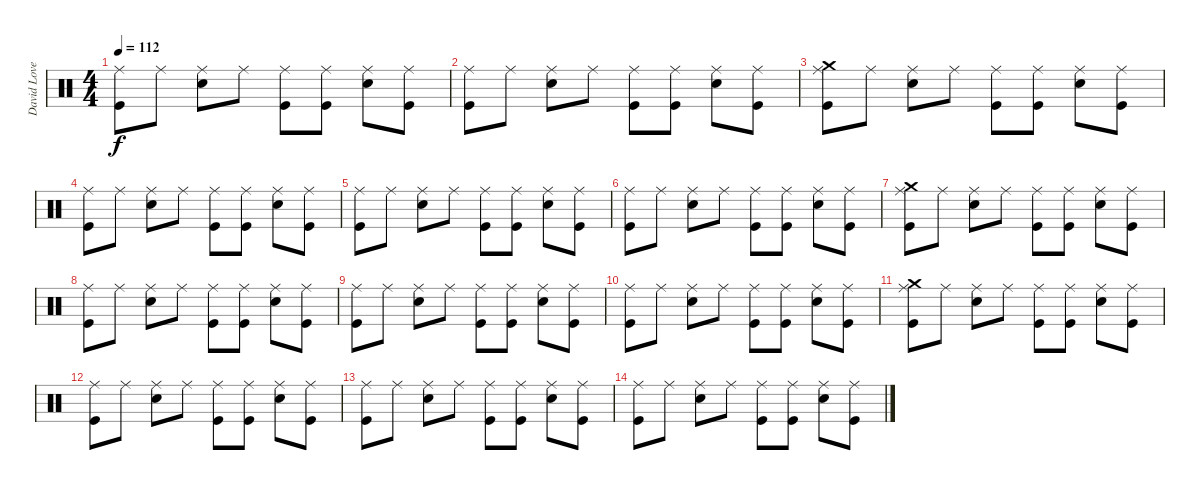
\track ("David Lovering" "David Love") {instrument percussion}
\staff {score}
\articulation defaults
\ts (4 4)
\tempo 112
\clef neutral
\ks c
("Ride (middle)" "Kick (hit)").8{dy f} "Ride (middle)".8 ("Ride (middle)" "Snare (hit) 2").8 "Ride (middle)".8 ("Ride (middle)" "Kick (hit)").8 ("Ride (middle)" "Kick (hit)").8 ("Ride (middle)" "Snare (hit) 2").8 ("Ride (middle)" "Kick (hit)").8 |
("Ride (middle)" "Kick (hit)").8 "Ride (middle)".8 ("Ride (middle)" "Snare (hit) 2").8 "Ride (middle)".8 ("Ride (middle)" "Kick (hit)").8 ("Ride (middle)" "Kick (hit)").8 ("Ride (middle)" "Snare (hit) 2").8 ("Ride (middle)" "Kick (hit)").8 |
("Ride (middle)" "Crash medium (hit)" "Kick (hit)").8 "Ride (middle)".8 ("Ride (middle)" "Snare (hit) 2").8 "Ride (middle)".8 ("Ride (middle)" "Kick (hit)").8 ("Ride (middle)" "Kick (hit)").8 ("Ride (middle)" "Snare (hit) 2").8 ("Ride (middle)" "Kick (hit)").8 |
("Ride (middle)" "Kick (hit)").8 "Ride (middle)".8 ("Ride (middle)" "Snare (hit) 2").8 "Ride (middle)".8 ("Ride (middle)" "Kick (hit)").8 ("Ride (middle)" "Kick (hit)").8 ("Ride (middle)" "Snare (hit) 2").8 ("Ride (middle)" "Kick (hit)").8 |
("Ride (middle)" "Kick (hit)").8 "Ride (middle)".8 ("Ride (middle)" "Snare (hit) 2").8 "Ride (middle)".8 ("Ride (middle)" "Kick (hit)").8 ("Ride (middle)" "Kick (hit)").8 ("Ride (middle)" "Snare (hit) 2").8 ("Ride (middle)" "Kick (hit)").8 |
("Ride (middle)" "Kick (hit)").8 "Ride (middle)".8 ("Ride (middle)" "Snare (hit) 2").8 "Ride (middle)".8 ("Ride (middle)" "Kick (hit)").8 ("Ride (middle)" "Kick (hit)").8 ("Ride (middle)" "Snare (hit) 2").8 ("Ride (middle)" "Kick (hit)").8 |
("Ride (middle)" "Crash medium (hit)" "Kick (hit)").8 "Ride (middle)".8 ("Ride (middle)" "Snare (hit) 2").8 "Ride (middle)".8 ("Ride (middle)" "Kick (hit)").8 ("Ride (middle)" "Kick (hit)").8 ("Ride (middle)" "Snare (hit) 2").8 ("Ride (middle)" "Kick (hit)").8 |
("Ride (middle)" "Kick (hit)").8 "Ride (middle)".8 ("Ride (middle)" "Snare (hit) 2").8 "Ride (middle)".8 ("Ride (middle)" "Kick (hit)").8 ("Ride (middle)" "Kick (hit)").8 ("Ride (middle)" "Snare (hit) 2").8 ("Ride (middle)" "Kick (hit)").8 |
("Ride (middle)" "Kick (hit)").8 "Ride (middle)".8 ("Ride (middle)" "Snare (hit) 2").8 "Ride (middle)".8 ("Ride (middle)" "Kick (hit)").8 ("Ride (middle)" "Kick (hit)").8 ("Ride (middle)" "Snare (hit) 2").8 ("Ride (middle)" "Kick (hit)").8 |
("Ride (middle)" "Kick (hit)").8 "Ride (middle)".8 ("Ride (middle)" "Snare (hit) 2").8 "Ride (middle)".8 ("Ride (middle)" "Kick (hit)").8 ("Ride (middle)" "Kick (hit)").8 ("Ride (middle)" "Snare (hit) 2").8 ("Ride (middle)" "Kick (hit)").8 |
("Ride (middle)" "Crash medium (hit)" "Kick (hit)").8 "Ride (middle)".8 ("Ride (middle)" "Snare (hit) 2").8 "Ride (middle)".8 ("Ride (middle)" "Kick (hit)").8 ("Ride (middle)" "Kick (hit)").8 ("Ride (middle)" "Snare (hit) 2").8 ("Ride (middle)" "Kick (hit)").8 |
("Ride (middle)" "Kick (hit)").8 "Ride (middle)".8 ("Ride (middle)" "Snare (hit) 2").8 "Ride (middle)".8 ("Ride (middle)" "Kick (hit)").8 ("Ride (middle)" "Kick (hit)").8 ("Ride (middle)" "Snare (hit) 2").8 ("Ride (middle)" "Kick (hit)").8 |
("Ride (middle)" "Kick (hit)").8 "Ride (middle)".8 ("Ride (middle)" "Snare (hit) 2").8 "Ride (middle)".8 ("Ride (middle)" "Kick (hit)").8 ("Ride (middle)" "Kick (hit)").8 ("Ride (middle)" "Snare (hit) 2").8 ("Ride (middle)" "Kick (hit)").8 |
("Ride (middle)" "Kick (hit)").8 "Ride (middle)".8 ("Ride (middle)" "Snare (hit) 2").8 "Ride (middle)".8 ("Ride (middle)" "Kick (hit)").8 ("Ride (middle)" "Kick (hit)").8 ("Ride (middle)" "Snare (hit) 2").8 ("Ride (middle)" "Kick (hit)").8
